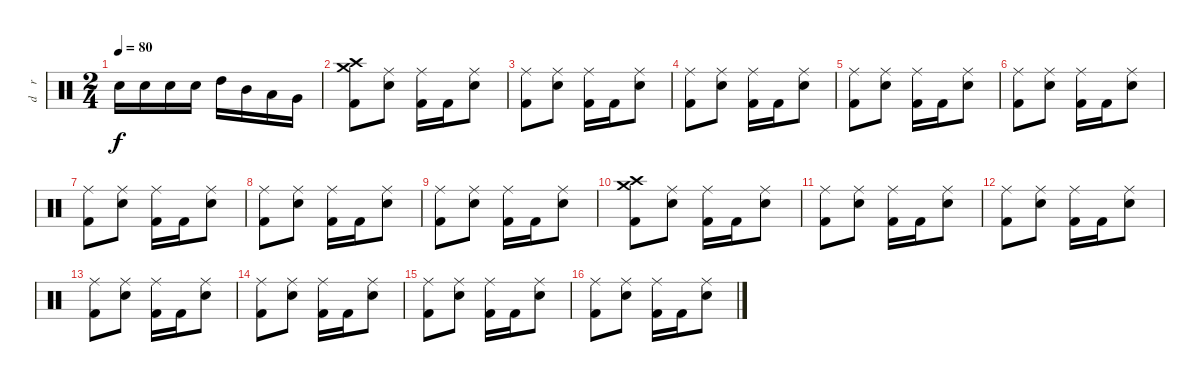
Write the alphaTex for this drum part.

\track ("d    r     u    m    s" "d    r    ") {instrument percussion}
\staff {score}
\articulation defaults
\ts (2 4)
\tempo 80
\clef neutral
\ks c "Electric Snare (hit)".16{dy f} "Electric Snare (hit)".16 "Electric Snare (hit)".16 "Electric Snare (hit)".16 "High Tom (hit)".16 "Mid Tom (hit)".16 "Low Tom (hit)".16 "Very Low Tom (hit)".16
|
("Crash high (hit)" "Crash medium (hit)" "Kick (hit) 2").8 ("Ride (middle)" "Electric Snare (hit)").8 ("Ride (middle)" "Kick (hit) 2").16 "Kick (hit) 2".16 ("Ride (middle)" "Electric Snare (hit)").8 |
("Ride (middle)" "Kick (hit) 2").8 ("Ride (middle)" "Electric Snare (hit)").8 ("Ride (middle)" "Kick (hit) 2").16 "Kick (hit) 2".16 ("Ride (middle)" "Electric Snare (hit)").8 |
("Ride (middle)" "Kick (hit) 2").8 ("Ride (middle)" "Electric Snare (hit)").8 ("Ride (middle)" "Kick (hit) 2").16 "Kick (hit) 2".16 ("Ride (middle)" "Electric Snare (hit)").8 |
("Ride (middle)" "Kick (hit) 2").8 ("Ride (middle)" "Electric Snare (hit)").8 ("Ride (middle)" "Kick (hit) 2").16 "Kick (hit) 2".16 ("Ride (middle)" "Electric Snare (hit)").8 |
("Ride (middle)" "Kick (hit) 2").8 ("Ride (middle)" "Electric Snare (hit)").8 ("Ride (middle)" "Kick (hit) 2").16 "Kick (hit) 2".16 ("Ride (middle)" "Electric Snare (hit)").8 |
("Ride (middle)" "Kick (hit) 2").8 ("Ride (middle)" "Electric Snare (hit)").8 ("Ride (middle)" "Kick (hit) 2").16 "Kick (hit) 2".16 ("Ride (middle)" "Electric Snare (hit)").8 |
("Ride (middle)" "Kick (hit) 2").8 ("Ride (middle)" "Electric Snare (hit)").8 ("Ride (middle)" "Kick (hit) 2").16 "Kick (hit) 2".16 ("Ride (middle)" "Electric Snare (hit)").8 |
("Ride (middle)" "Kick (hit) 2").8 ("Ride (middle)" "Electric Snare (hit)").8 ("Ride (middle)" "Kick (hit) 2").16 "Kick (hit) 2".16 ("Ride (middle)" "Electric Snare (hit)").8 |
("Crash high (hit)" "Crash medium (hit)" "Kick (hit) 2").8 ("Ride (middle)" "Electric Snare (hit)").8 ("Ride (middle)" "Kick (hit) 2").16 "Kick (hit) 2".16 ("Ride (middle)" "Electric Snare (hit)").8 |
("Ride (middle)" "Kick (hit) 2").8 ("Ride (middle)" "Electric Snare (hit)").8 ("Ride (middle)" "Kick (hit) 2").16 "Kick (hit) 2".16 ("Ride (middle)" "Electric Snare (hit)").8 |
("Ride (middle)" "Kick (hit) 2").8 ("Ride (middle)" "Electric Snare (hit)").8 ("Ride (middle)" "Kick (hit) 2").16 "Kick (hit) 2".16 ("Ride (middle)" "Electric Snare (hit)").8 |
("Ride (middle)" "Kick (hit) 2").8 ("Ride (middle)" "Electric Snare (hit)").8 ("Ride (middle)" "Kick (hit) 2").16 "Kick (hit) 2".16 ("Ride (middle)" "Electric Snare (hit)").8 |
("Ride (middle)" "Kick (hit) 2").8 ("Ride (middle)" "Electric Snare (hit)").8 ("Ride (middle)" "Kick (hit) 2").16 "Kick (hit) 2".16 ("Ride (middle)" "Electric Snare (hit)").8 |
("Ride (middle)" "Kick (hit) 2").8 ("Ride (middle)" "Electric Snare (hit)").8 ("Ride (middle)" "Kick (hit) 2").16 "Kick (hit) 2".16 ("Ride (middle)" "Electric Snare (hit)").8 |
("Ride (middle)" "Kick (hit) 2").8 ("Ride (middle)" "Electric Snare (hit)").8 ("Ride (middle)" "Kick (hit) 2").16 "Kick (hit) 2".16 ("Ride (middle)" "Electric Snare (hit)").8
